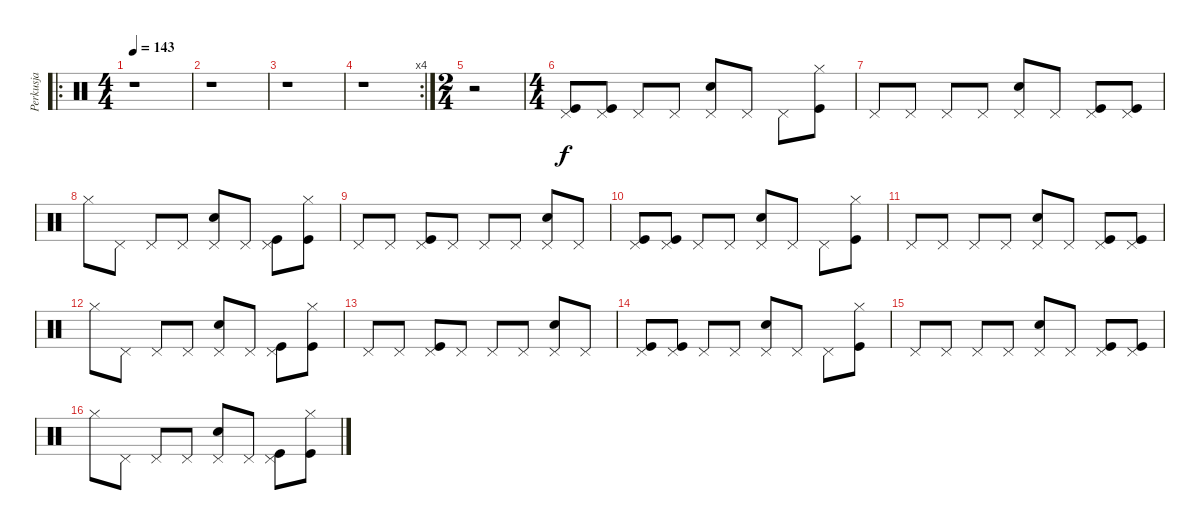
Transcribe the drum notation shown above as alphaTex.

\track ("Perkusja" "Perkusja") {instrument percussion}
\staff {score}
\articulation defaults
\ro
\ts (4 4)
\tempo 143
\clef neutral
\ks c
r.1{dy f} |
r.1 |
r.1 |
\rc 4
r.1 |
\ts (2 4)
r.2 |
\ts (4 4)
("Pedal Hi-Hat (hit)" "Kick (hit)").8 ("Pedal Hi-Hat (hit)" "Kick (hit)").8 "Pedal Hi-Hat (hit)".8 "Pedal Hi-Hat (hit)".8 ("Pedal Hi-Hat (hit)" "Snare (hit) 2").8 "Pedal Hi-Hat (hit)".8 "Pedal Hi-Hat (hit)".8 ("Hi-Hat (closed)" "Kick (hit)").8 |
"Pedal Hi-Hat (hit)".8 "Pedal Hi-Hat (hit)".8 "Pedal Hi-Hat (hit)".8 "Pedal Hi-Hat (hit)".8 ("Pedal Hi-Hat (hit)" "Snare (hit) 2").8 "Pedal Hi-Hat (hit)".8 ("Pedal Hi-Hat (hit)" "Kick (hit)").8 ("Pedal Hi-Hat (hit)" "Kick (hit)").8 |
"Hi-Hat (closed)".8 "Pedal Hi-Hat (hit)".8 "Pedal Hi-Hat (hit)".8 "Pedal Hi-Hat (hit)".8 ("Pedal Hi-Hat (hit)" "Snare (hit) 2").8 "Pedal Hi-Hat (hit)".8 ("Pedal Hi-Hat (hit)" "Kick (hit)").8 ("Hi-Hat (closed)" "Kick (hit)").8 |
"Pedal Hi-Hat (hit)".8 "Pedal Hi-Hat (hit)".8 ("Pedal Hi-Hat (hit)" "Kick (hit)").8 "Pedal Hi-Hat (hit)".8 "Pedal Hi-Hat (hit)".8 "Pedal Hi-Hat (hit)".8 ("Pedal Hi-Hat (hit)" "Snare (hit) 2").8 "Pedal Hi-Hat (hit)".8 |
("Pedal Hi-Hat (hit)" "Kick (hit)").8 ("Pedal Hi-Hat (hit)" "Kick (hit)").8 "Pedal Hi-Hat (hit)".8 "Pedal Hi-Hat (hit)".8 ("Pedal Hi-Hat (hit)" "Snare (hit) 2").8 "Pedal Hi-Hat (hit)".8 "Pedal Hi-Hat (hit)".8 ("Hi-Hat (closed)" "Kick (hit)").8 |
"Pedal Hi-Hat (hit)".8 "Pedal Hi-Hat (hit)".8 "Pedal Hi-Hat (hit)".8 "Pedal Hi-Hat (hit)".8 ("Pedal Hi-Hat (hit)" "Snare (hit) 2").8 "Pedal Hi-Hat (hit)".8 ("Pedal Hi-Hat (hit)" "Kick (hit)").8 ("Pedal Hi-Hat (hit)" "Kick (hit)").8 |
"Hi-Hat (closed)".8 "Pedal Hi-Hat (hit)".8 "Pedal Hi-Hat (hit)".8 "Pedal Hi-Hat (hit)".8 ("Pedal Hi-Hat (hit)" "Snare (hit) 2").8 "Pedal Hi-Hat (hit)".8 ("Pedal Hi-Hat (hit)" "Kick (hit)").8 ("Hi-Hat (closed)" "Kick (hit)").8 |
"Pedal Hi-Hat (hit)".8 "Pedal Hi-Hat (hit)".8 ("Pedal Hi-Hat (hit)" "Kick (hit)").8 "Pedal Hi-Hat (hit)".8 "Pedal Hi-Hat (hit)".8 "Pedal Hi-Hat (hit)".8 ("Pedal Hi-Hat (hit)" "Snare (hit) 2").8 "Pedal Hi-Hat (hit)".8 |
("Pedal Hi-Hat (hit)" "Kick (hit)").8 ("Pedal Hi-Hat (hit)" "Kick (hit)").8 "Pedal Hi-Hat (hit)".8 "Pedal Hi-Hat (hit)".8 ("Pedal Hi-Hat (hit)" "Snare (hit) 2").8 "Pedal Hi-Hat (hit)".8 "Pedal Hi-Hat (hit)".8 ("Hi-Hat (closed)" "Kick (hit)").8 |
"Pedal Hi-Hat (hit)".8 "Pedal Hi-Hat (hit)".8 "Pedal Hi-Hat (hit)".8 "Pedal Hi-Hat (hit)".8 ("Pedal Hi-Hat (hit)" "Snare (hit) 2").8 "Pedal Hi-Hat (hit)".8 ("Pedal Hi-Hat (hit)" "Kick (hit)").8 ("Pedal Hi-Hat (hit)" "Kick (hit)").8 |
"Hi-Hat (closed)".8 "Pedal Hi-Hat (hit)".8 "Pedal Hi-Hat (hit)".8 "Pedal Hi-Hat (hit)".8 ("Pedal Hi-Hat (hit)" "Snare (hit) 2").8 "Pedal Hi-Hat (hit)".8 ("Pedal Hi-Hat (hit)" "Kick (hit)").8 ("Hi-Hat (closed)" "Kick (hit)").8
